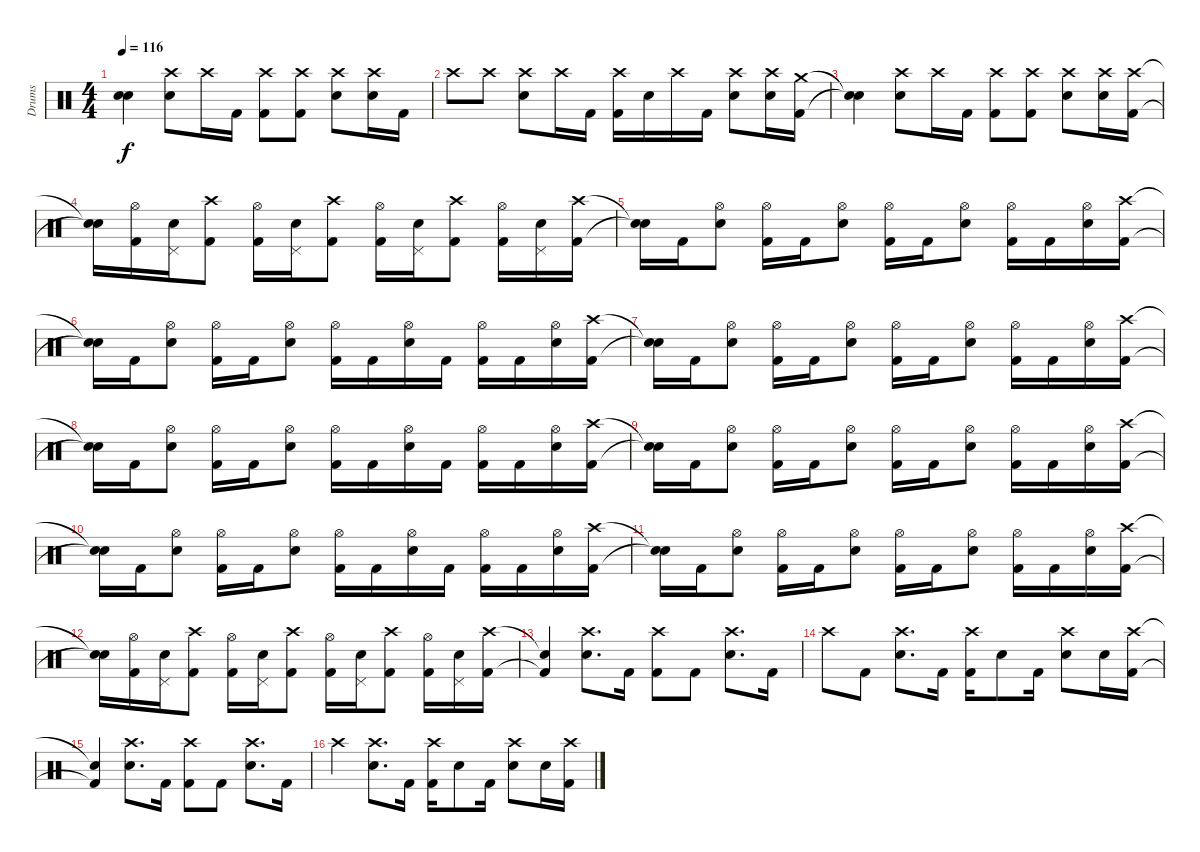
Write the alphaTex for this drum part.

\track ("Drums" "Drums") {instrument percussion}
\staff {score}
\articulation defaults
\ts (4 4)
\tempo 116
\clef neutral
\ks c
("Snare (hit)"{t} "Snare (hit)"{t}).4{dy f} ("Crash high (hit)" "Electric Snare (hit)").8 "Crash high (hit)".16 "Kick (hit) 2".16 ("Crash high (hit)" "Kick (hit) 2").8 ("Crash high (hit)" "Kick (hit) 2").8 ("Crash high (hit)" "Electric Snare (hit)").8 ("Crash high (hit)" "Electric Snare (hit)").16 "Kick (hit) 2".16 |
"Crash high (hit)".8 "Crash high (hit)".8 ("Crash high (hit)" "Electric Snare (hit)").8 "Crash high (hit)".16 "Kick (hit) 2".16 ("Crash high (hit)" "Kick (hit) 2").16 "Electric Snare (hit)".16 "Crash high (hit)".16 "Kick (hit) 2".16 ("Crash high (hit)" "Electric Snare (hit)").8 ("Crash high (hit)" "Electric Snare (hit)").16 ("Crash medium (hit)" "Kick (hit) 2").16 |
("Snare (hit)"{t} "Snare (hit)"{t}).4 ("Crash high (hit)" "Electric Snare (hit)").8 "Crash high (hit)".16 "Kick (hit) 2".16 ("Crash high (hit)" "Kick (hit) 2").8 ("Crash high (hit)" "Kick (hit) 2").8 ("Crash high (hit)" "Electric Snare (hit)").8 ("Crash high (hit)" "Electric Snare (hit)").16 ("Crash high (hit)" "Kick (hit) 2").16 |
("Snare (hit)"{t} "Snare (hit)"{t}).16 ("Hi-Hat (open)" "Kick (hit) 2").16 ("Pedal Hi-Hat (hit)" "Electric Snare (hit)").16 ("Crash high (hit)" "Kick (hit) 2").8 ("Hi-Hat (open)" "Kick (hit) 2").16 ("Pedal Hi-Hat (hit)" "Electric Snare (hit)").16 ("Crash high (hit)" "Kick (hit) 2").8 ("Hi-Hat (open)" "Kick (hit) 2").16 ("Pedal Hi-Hat (hit)" "Electric Snare (hit)").16 ("Crash high (hit)" "Kick (hit) 2").8 ("Hi-Hat (open)" "Kick (hit) 2").16 ("Pedal Hi-Hat (hit)" "Electric Snare (hit)").16 ("Crash high (hit)" "Kick (hit) 2").16 |
("Snare (hit)"{t} "Snare (hit)"{t}).16 "Kick (hit) 2".16 ("Hi-Hat (open)" "Electric Snare (hit)").8 ("Hi-Hat (open)" "Kick (hit) 2").16 "Kick (hit) 2".16 ("Hi-Hat (open)" "Electric Snare (hit)").8 ("Hi-Hat (open)" "Kick (hit) 2").16 "Kick (hit) 2".16 ("Hi-Hat (open)" "Electric Snare (hit)").8 ("Hi-Hat (open)" "Kick (hit) 2").16 "Kick (hit) 2".16 ("Hi-Hat (open)" "Electric Snare (hit)").16 ("Crash high (hit)" "Kick (hit) 2").16 |
("Snare (hit)"{t} "Snare (hit)"{t}).16 "Kick (hit) 2".16 ("Hi-Hat (open)" "Electric Snare (hit)").8 ("Hi-Hat (open)" "Kick (hit) 2").16 "Kick (hit) 2".16 ("Hi-Hat (open)" "Electric Snare (hit)").8 ("Hi-Hat (open)" "Kick (hit) 2").16 "Kick (hit) 2".16 ("Hi-Hat (open)" "Electric Snare (hit)").16 "Kick (hit) 2".16 ("Hi-Hat (open)" "Kick (hit) 2").16 "Kick (hit) 2".16 ("Hi-Hat (open)" "Electric Snare (hit)").16 ("Crash high (hit)" "Kick (hit) 2").16 |
("Snare (hit)"{t} "Snare (hit)"{t}).16 "Kick (hit) 2".16 ("Hi-Hat (open)" "Electric Snare (hit)").8 ("Hi-Hat (open)" "Kick (hit) 2").16 "Kick (hit) 2".16 ("Hi-Hat (open)" "Electric Snare (hit)").8 ("Hi-Hat (open)" "Kick (hit) 2").16 "Kick (hit) 2".16 ("Hi-Hat (open)" "Electric Snare (hit)").8 ("Hi-Hat (open)" "Kick (hit) 2").16 "Kick (hit) 2".16 ("Hi-Hat (open)" "Electric Snare (hit)").16 ("Crash high (hit)" "Kick (hit) 2").16 |
("Snare (hit)"{t} "Snare (hit)"{t}).16 "Kick (hit) 2".16 ("Hi-Hat (open)" "Electric Snare (hit)").8 ("Hi-Hat (open)" "Kick (hit) 2").16 "Kick (hit) 2".16 ("Hi-Hat (open)" "Electric Snare (hit)").8 ("Hi-Hat (open)" "Kick (hit) 2").16 "Kick (hit) 2".16 ("Hi-Hat (open)" "Electric Snare (hit)").16 "Kick (hit) 2".16 ("Hi-Hat (open)" "Kick (hit) 2").16 "Kick (hit) 2".16 ("Hi-Hat (open)" "Electric Snare (hit)").16 ("Crash high (hit)" "Kick (hit) 2").16 |
("Snare (hit)"{t} "Snare (hit)"{t}).16 "Kick (hit) 2".16 ("Hi-Hat (open)" "Electric Snare (hit)").8 ("Hi-Hat (open)" "Kick (hit) 2").16 "Kick (hit) 2".16 ("Hi-Hat (open)" "Electric Snare (hit)").8 ("Hi-Hat (open)" "Kick (hit) 2").16 "Kick (hit) 2".16 ("Hi-Hat (open)" "Electric Snare (hit)").8 ("Hi-Hat (open)" "Kick (hit) 2").16 "Kick (hit) 2".16 ("Hi-Hat (open)" "Electric Snare (hit)").16 ("Crash high (hit)" "Kick (hit) 2").16 |
("Snare (hit)"{t} "Snare (hit)"{t}).16 "Kick (hit) 2".16 ("Hi-Hat (open)" "Electric Snare (hit)").8 ("Hi-Hat (open)" "Kick (hit) 2").16 "Kick (hit) 2".16 ("Hi-Hat (open)" "Electric Snare (hit)").8 ("Hi-Hat (open)" "Kick (hit) 2").16 "Kick (hit) 2".16 ("Hi-Hat (open)" "Electric Snare (hit)").16 "Kick (hit) 2".16 ("Hi-Hat (open)" "Kick (hit) 2").16 "Kick (hit) 2".16 ("Hi-Hat (open)" "Electric Snare (hit)").16 ("Crash high (hit)" "Kick (hit) 2").16 |
("Snare (hit)"{t} "Snare (hit)"{t}).16 "Kick (hit) 2".16 ("Hi-Hat (open)" "Electric Snare (hit)").8 ("Hi-Hat (open)" "Kick (hit) 2").16 "Kick (hit) 2".16 ("Hi-Hat (open)" "Electric Snare (hit)").8 ("Hi-Hat (open)" "Kick (hit) 2").16 "Kick (hit) 2".16 ("Hi-Hat (open)" "Electric Snare (hit)").8 ("Hi-Hat (open)" "Kick (hit) 2").16 "Kick (hit) 2".16 ("Hi-Hat (open)" "Electric Snare (hit)").16 ("Crash high (hit)" "Kick (hit) 2").16 |
("Snare (hit)"{t} "Snare (hit)"{t}).16 ("Hi-Hat (open)" "Kick (hit) 2").16 ("Pedal Hi-Hat (hit)" "Electric Snare (hit)").16 ("Crash high (hit)" "Kick (hit) 2").8 ("Hi-Hat (open)" "Kick (hit) 2").16 ("Pedal Hi-Hat (hit)" "Electric Snare (hit)").16 ("Crash high (hit)" "Kick (hit) 2").8 ("Hi-Hat (open)" "Kick (hit) 2").16 ("Pedal Hi-Hat (hit)" "Electric Snare (hit)").16 ("Crash high (hit)" "Kick (hit) 2").8 ("Hi-Hat (open)" "Kick (hit) 2").16 ("Pedal Hi-Hat (hit)" "Electric Snare (hit)").16 ("Crash high (hit)" "Kick (hit) 2").16 |
("Snare (hit)"{t} "Kick (hit) 2"{t}).4 ("Crash high (hit)" "Electric Snare (hit)").8{d} "Kick (hit) 2".16 ("Crash high (hit)" "Kick (hit) 2").8 "Kick (hit) 2".8 ("Crash high (hit)" "Electric Snare (hit)").8{d} "Kick (hit) 2".16 |
"Crash high (hit)".8 "Kick (hit) 2".8 ("Crash high (hit)" "Electric Snare (hit)").8{d} "Kick (hit) 2".16 ("Crash high (hit)" "Kick (hit) 2").16 "Electric Snare (hit)".8 "Kick (hit) 2".16 ("Crash high (hit)" "Electric Snare (hit)").8 "Electric Snare (hit)".16 ("Crash high (hit)" "Kick (hit) 2").16 |
("Snare (hit)"{t} "Kick (hit) 2"{t}).4 ("Crash high (hit)" "Electric Snare (hit)").8{d} "Kick (hit) 2".16 ("Crash high (hit)" "Kick (hit) 2").8 "Kick (hit) 2".8 ("Crash high (hit)" "Electric Snare (hit)").8{d} "Kick (hit) 2".16 |
"Crash high (hit)".4 ("Crash high (hit)" "Electric Snare (hit)").8{d} "Kick (hit) 2".16 ("Crash high (hit)" "Kick (hit) 2").16 "Electric Snare (hit)".8 "Kick (hit) 2".16 ("Crash high (hit)" "Electric Snare (hit)").8 "Electric Snare (hit)".16 ("Crash high (hit)" "Kick (hit) 2").16
